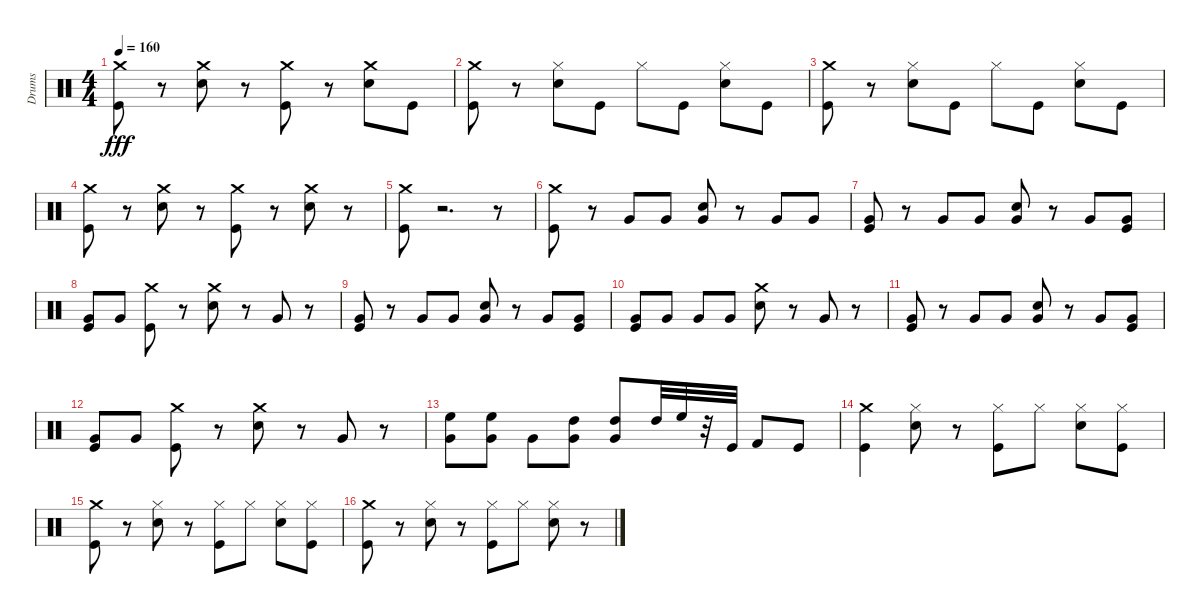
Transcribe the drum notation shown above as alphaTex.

\track ("Drums" "Drums") {instrument percussion}
\staff {score}
\articulation defaults
\ts (4 4)
\tempo 160
\clef neutral
\ks c
("Kick (hit)" "Crash medium (hit)").8{dy fff} r.8 ("Snare (hit) 2" "Crash medium (hit)").8 r.8 ("Kick (hit)" "Crash medium (hit)").8 r.8 ("Snare (hit) 2" "Crash medium (hit)").8 "Kick (hit)".8 |
("Crash medium (hit)" "Kick (hit)").8 r.8 ("Hi-Hat (closed)" "Snare (hit) 2").8 "Kick (hit)".8 "Hi-Hat (closed)".8 "Kick (hit)".8 ("Snare (hit) 2" "Hi-Hat (closed)").8 "Kick (hit)".8 |
("Crash medium (hit)" "Kick (hit)").8 r.8 ("Hi-Hat (closed)" "Snare (hit) 2").8 "Kick (hit)".8 "Hi-Hat (closed)".8 "Kick (hit)".8 ("Snare (hit) 2" "Hi-Hat (closed)").8 "Kick (hit)".8 |
("Crash medium (hit)" "Kick (hit)").8 r.8 ("Snare (hit) 2" "Crash medium (hit)").8 r.8 ("Kick (hit)" "Crash medium (hit)").8 r.8 ("Snare (hit) 2" "Crash medium (hit)").8 r.8 |
("Kick (hit)" "Crash medium (hit)").8 r.2{d} r.8 |
("Crash medium (hit)" "Kick (hit)").8 r.8 "Very Low Tom (hit)".8 "Very Low Tom (hit)".8 ("Snare (hit) 2" "Very Low Tom (hit)").8 r.8 "Very Low Tom (hit)".8 "Very Low Tom (hit)".8 |
("Kick (hit)" "Very Low Tom (hit)").8 r.8 "Very Low Tom (hit)".8 "Very Low Tom (hit)".8 ("Very Low Tom (hit)" "Snare (hit) 2").8 r.8 "Very Low Tom (hit)".8 ("Kick (hit)" "Very Low Tom (hit)").8 |
("Very Low Tom (hit)" "Kick (hit)").8 "Very Low Tom (hit)".8 ("Crash medium (hit)" "Kick (hit)").8 r.8 ("Snare (hit) 2" "Crash medium (hit)").8 r.8 "Very Low Tom (hit)".8 r.8 |
("Kick (hit)" "Very Low Tom (hit)").8 r.8 "Very Low Tom (hit)".8 "Very Low Tom (hit)".8 ("Very Low Tom (hit)" "Snare (hit) 2").8 r.8 "Very Low Tom (hit)".8 ("Kick (hit)" "Very Low Tom (hit)").8 |
("Very Low Tom (hit)" "Kick (hit)").8 "Very Low Tom (hit)".8 "Very Low Tom (hit)".8 "Very Low Tom (hit)".8 ("Crash medium (hit)" "Snare (hit) 2").8 r.8 "Very Low Tom (hit)".8 r.8 |
("Very Low Tom (hit)" "Kick (hit)").8 r.8 "Very Low Tom (hit)".8 "Very Low Tom (hit)".8 ("Very Low Tom (hit)" "Snare (hit) 2").8 r.8 "Very Low Tom (hit)".8 ("Kick (hit)" "Very Low Tom (hit)").8 |
("Very Low Tom (hit)" "Kick (hit)").8 "Very Low Tom (hit)".8 ("Crash medium (hit)" "Kick (hit)").8 r.8 ("Crash medium (hit)" "Snare (hit) 2").8 r.8 "Very Low Tom (hit)".8 r.8 |
("High Floor Tom (hit)" "Very Low Tom (hit)").8 ("High Floor Tom (hit)" "Very Low Tom (hit)").8 "Very Low Tom (hit)".8 ("High Tom (hit)" "Very Low Tom (hit)").8 ("Very Low Tom (hit)" "High Tom (hit)").8 "High Tom (hit)".32 "High Floor Tom (hit)".32 r.32 "Kick (hit)".32 "Kick (hit) 2".8 "Kick (hit)".8 |
("Crash medium (hit)" "Kick (hit)").4 ("Hi-Hat (closed)" "Snare (hit) 2").8 r.8 ("Kick (hit)" "Hi-Hat (closed)").8 "Hi-Hat (closed)".8 ("Snare (hit) 2" "Hi-Hat (closed)").8 ("Kick (hit)" "Hi-Hat (closed)").8 |
("Crash medium (hit)" "Kick (hit)").8 r.8 ("Hi-Hat (closed)" "Snare (hit) 2").8 r.8 ("Kick (hit)" "Hi-Hat (closed)").8 "Hi-Hat (closed)".8 ("Snare (hit) 2" "Hi-Hat (closed)").8 ("Hi-Hat (closed)" "Kick (hit)").8 |
("Crash medium (hit)" "Kick (hit)").8 r.8 ("Snare (hit) 2" "Hi-Hat (closed)").8 r.8 ("Kick (hit)" "Hi-Hat (closed)").8 "Hi-Hat (closed)".8 ("Snare (hit) 2" "Hi-Hat (closed)").8 r.8
